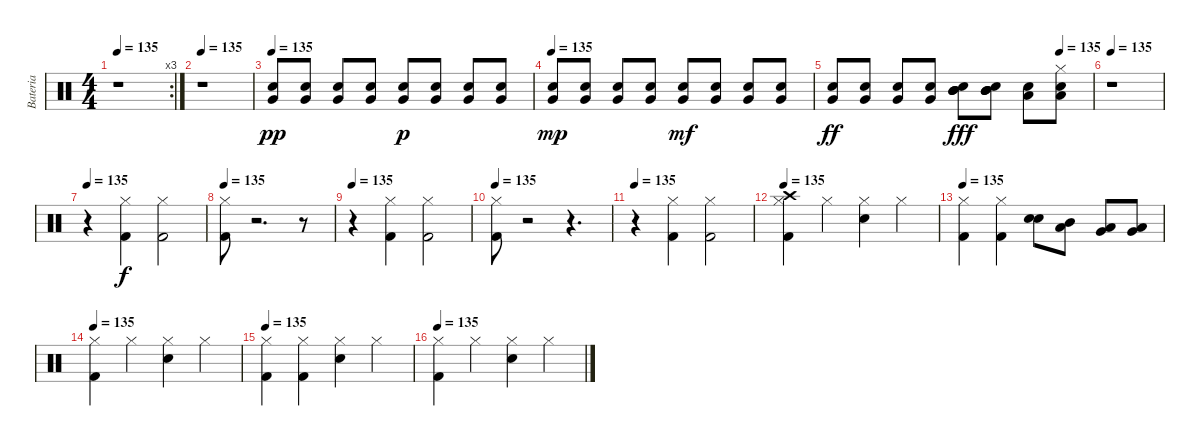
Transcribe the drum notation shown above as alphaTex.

\track ("Bateria" "Bateria") {instrument percussion}
\staff {score}
\articulation defaults
\rc 3
\ts (4 4)
\tempo 135
\clef neutral
\ks c
r.1{dy f} |
\tempo 135
r.1 |
\tempo 135
("Very Low Tom (hit)" "Electric Snare (hit)").8{dy pp} ("Very Low Tom (hit)" "Electric Snare (hit)").8 ("Very Low Tom (hit)" "Electric Snare (hit)").8 ("Very Low Tom (hit)" "Electric Snare (hit)").8 ("Very Low Tom (hit)" "Electric Snare (hit)").8{dy p} ("Very Low Tom (hit)" "Electric Snare (hit)").8 ("Very Low Tom (hit)" "Electric Snare (hit)").8 ("Very Low Tom (hit)" "Electric Snare (hit)").8 |
\tempo 135
("Very Low Tom (hit)" "Electric Snare (hit)").8{dy mp} ("Very Low Tom (hit)" "Electric Snare (hit)").8 ("Very Low Tom (hit)" "Electric Snare (hit)").8 ("Very Low Tom (hit)" "Electric Snare (hit)").8 ("Very Low Tom (hit)" "Electric Snare (hit)").8{dy mf} ("Very Low Tom (hit)" "Electric Snare (hit)").8 ("Very Low Tom (hit)" "Electric Snare (hit)").8 ("Very Low Tom (hit)" "Electric Snare (hit)").8 |
\tempo (135 0.875)
("Very Low Tom (hit)" "Electric Snare (hit)").8{dy ff} ("Very Low Tom (hit)" "Electric Snare (hit)").8 ("Very Low Tom (hit)" "Electric Snare (hit)").8 ("Very Low Tom (hit)" "Electric Snare (hit)").8 ("Mid Tom (hit)" "Mid Tom (hit)" "Mid Tom (hit)" "Electric Snare (hit)").8{dy fff} ("Mid Tom (hit)" "Mid Tom (hit)" "Mid Tom (hit)" "Electric Snare (hit)").8 ("Low Tom (hit)" "Electric Snare (hit)").8 ("Low Tom (hit)" "Electric Snare (hit)" "Hi-Hat (closed)").8 |
\tempo 135
r.1 |
\tempo 135
r.4 ("Kick (hit) 2" "Hi-Hat (closed)").4{dy f} ("Kick (hit) 2" "Hi-Hat (closed)").2 |
\tempo 135
("Kick (hit) 2" "Hi-Hat (closed)").8 r.2{d} r.8 |
\tempo 135
r.4 ("Kick (hit) 2" "Hi-Hat (closed)").4 ("Kick (hit) 2" "Hi-Hat (closed)").2 |
\tempo 135
("Kick (hit) 2" "Hi-Hat (closed)").8 r.2 r.4{d} |
\tempo 135
r.4 ("Kick (hit) 2" "Hi-Hat (closed)").4 ("Kick (hit) 2" "Hi-Hat (closed)").2 |
\tempo 135
("Hi-Hat (closed)" "Kick (hit) 2" "Crash high (hit)").4 "Hi-Hat (closed)".4 ("Hi-Hat (closed)" "Electric Snare (hit)").4 "Hi-Hat (closed)".4 |
\tempo 135
("Hi-Hat (closed)" "Kick (hit) 2").4 ("Hi-Hat (closed)" "Kick (hit) 2").4 ("Electric Snare (hit)" "Electric Snare (hit)").8 ("Low Tom (hit)" "Mid Tom (hit)").8 ("Very Low Tom (hit)" "Low Tom (hit)").8 ("Low Floor Tom (hit)" "Very Low Tom (hit)").8 |
\tempo 135
("Hi-Hat (closed)" "Kick (hit) 2").4 "Hi-Hat (closed)".4 ("Hi-Hat (closed)" "Electric Snare (hit)").4 "Hi-Hat (closed)".4 |
\tempo 135
("Hi-Hat (closed)" "Kick (hit) 2").4 ("Hi-Hat (closed)" "Kick (hit) 2").4 ("Hi-Hat (closed)" "Electric Snare (hit)").4 "Hi-Hat (closed)".4 |
\tempo 135
("Hi-Hat (closed)" "Kick (hit) 2").4 "Hi-Hat (closed)".4 ("Hi-Hat (closed)" "Electric Snare (hit)").4 "Hi-Hat (closed)".4
